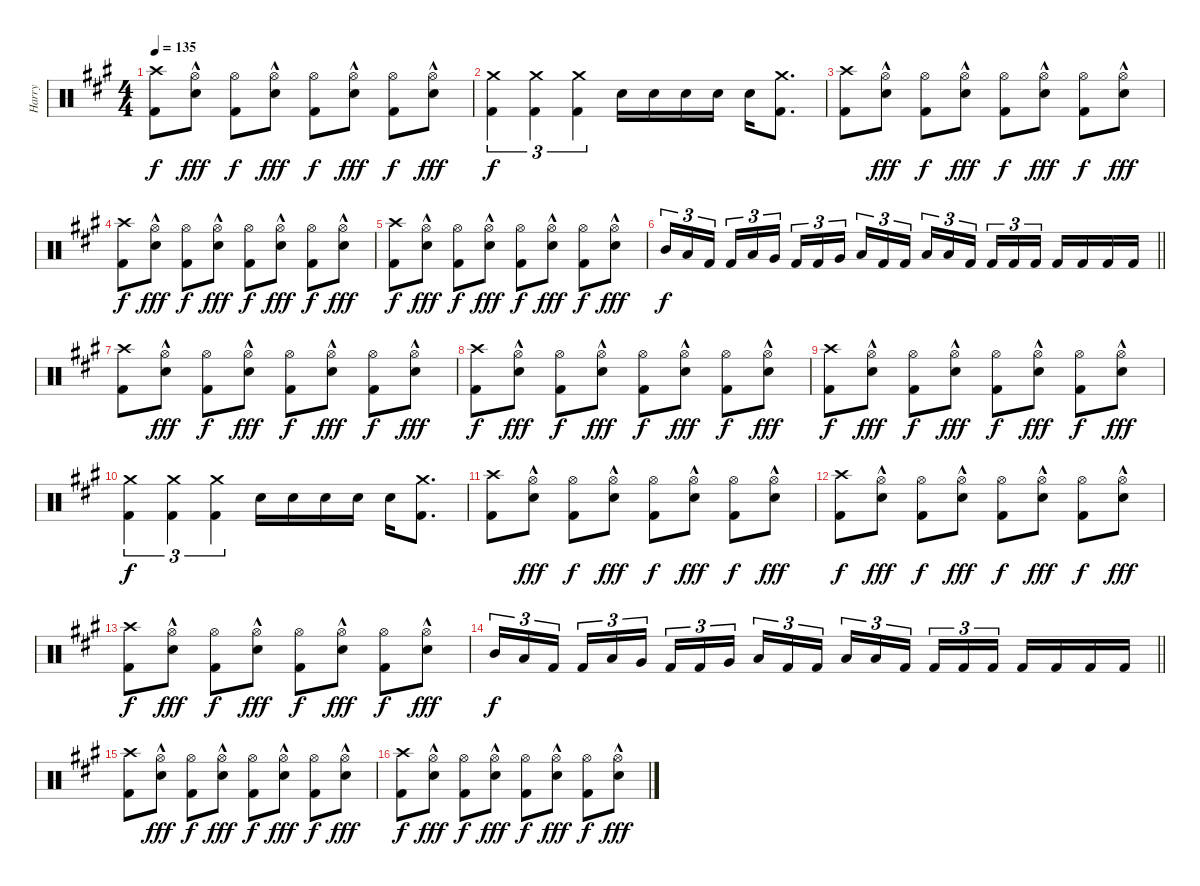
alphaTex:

\track ("Harry" "Harry") {instrument percussion}
\staff {score}
\articulation defaults
\ts (4 4)
\tempo 135
\clef neutral
\ks a
("Crash high (hit)" "Kick (hit) 2").8{dy f} ("Hi-Hat (open)"{hac} "Snare (hit) 2"{hac}).8{dy fff} ("Hi-Hat (open)" "Kick (hit) 2").8{dy f} ("Hi-Hat (open)"{hac} "Snare (hit) 2"{hac}).8{dy fff} ("Hi-Hat (open)" "Kick (hit) 2").8{dy f} ("Hi-Hat (open)"{hac} "Snare (hit) 2"{hac}).8{dy fff} ("Hi-Hat (open)" "Kick (hit) 2").8{dy f} ("Hi-Hat (open)"{hac} "Snare (hit) 2"{hac}).8{dy fff} |
("Crash medium (hit)" "Kick (hit) 2").4{tu (3 2) dy f} ("Crash medium (hit)" "Kick (hit) 2").4{tu (3 2)} ("Crash medium (hit)" "Kick (hit) 2").4{tu (3 2)} "Snare (hit) 2".16 "Snare (hit) 2".16 "Snare (hit) 2".16 "Snare (hit) 2".16 "Snare (hit) 2".16 ("Crash medium (hit)" "Kick (hit) 2").8{d} |
("Crash high (hit)" "Kick (hit) 2").8 ("Hi-Hat (open)"{hac} "Snare (hit) 2"{hac}).8{dy fff} ("Hi-Hat (open)" "Kick (hit) 2").8{dy f} ("Hi-Hat (open)"{hac} "Snare (hit) 2"{hac}).8{dy fff} ("Hi-Hat (open)" "Kick (hit) 2").8{dy f} ("Hi-Hat (open)"{hac} "Snare (hit) 2"{hac}).8{dy fff} ("Hi-Hat (open)" "Kick (hit) 2").8{dy f} ("Hi-Hat (open)"{hac} "Snare (hit) 2"{hac}).8{dy fff} |
("Crash high (hit)" "Kick (hit) 2").8{dy f} ("Hi-Hat (open)"{hac} "Snare (hit) 2"{hac}).8{dy fff} ("Hi-Hat (open)" "Kick (hit) 2").8{dy f} ("Hi-Hat (open)"{hac} "Snare (hit) 2"{hac}).8{dy fff} ("Hi-Hat (open)" "Kick (hit) 2").8{dy f} ("Hi-Hat (open)"{hac} "Snare (hit) 2"{hac}).8{dy fff} ("Hi-Hat (open)" "Kick (hit) 2").8{dy f} ("Hi-Hat (open)"{hac} "Snare (hit) 2"{hac}).8{dy fff} |
("Crash high (hit)" "Kick (hit) 2").8{dy f} ("Hi-Hat (open)"{hac} "Snare (hit) 2"{hac}).8{dy fff} ("Hi-Hat (open)" "Kick (hit) 2").8{dy f} ("Hi-Hat (open)"{hac} "Snare (hit) 2"{hac}).8{dy fff} ("Hi-Hat (open)" "Kick (hit) 2").8{dy f} ("Hi-Hat (open)"{hac} "Snare (hit) 2"{hac}).8{dy fff} ("Hi-Hat (open)" "Kick (hit) 2").8{dy f} ("Hi-Hat (open)"{hac} "Snare (hit) 2"{hac}).8{dy fff} |
\barLineRight lightlight "Mid Tom (hit)".16{tu (3 2) dy f} "Low Tom (hit)".16{tu (3 2)} "Kick (hit) 2".16{tu (3 2) beam splitsecondary} "Kick (hit) 2".16{tu (3 2)} "Low Tom (hit)".16{tu (3 2)} "Very Low Tom (hit)".16{tu (3 2)} "Kick (hit) 2".16{tu (3 2)} "Kick (hit) 2".16{tu (3 2)} "Very Low Tom (hit)".16{tu (3 2) beam splitsecondary} "Low Floor Tom (hit)".16{tu (3 2)} "Kick (hit) 2".16{tu (3 2)} "Kick (hit) 2".16{tu (3 2)} "Low Floor Tom (hit)".16{tu (3 2)} "Low Floor Tom (hit)".16{tu (3 2)} "Kick (hit) 2".16{tu (3 2) beam splitsecondary} "Kick (hit) 2".16{tu (3 2)} "Kick (hit) 2".16{tu (3 2)} "Kick (hit) 2".16{tu (3 2)} "Kick (hit) 2".16 "Kick (hit) 2".16 "Kick (hit) 2".16 "Kick (hit) 2".16
|
("Crash high (hit)" "Kick (hit) 2").8 ("Hi-Hat (open)"{hac} "Snare (hit) 2"{hac}).8{dy fff} ("Hi-Hat (open)" "Kick (hit) 2").8{dy f} ("Hi-Hat (open)"{hac} "Snare (hit) 2"{hac}).8{dy fff} ("Hi-Hat (open)" "Kick (hit) 2").8{dy f} ("Hi-Hat (open)"{hac} "Snare (hit) 2"{hac}).8{dy fff} ("Hi-Hat (open)" "Kick (hit) 2").8{dy f} ("Hi-Hat (open)"{hac} "Snare (hit) 2"{hac}).8{dy fff} |
("Crash high (hit)" "Kick (hit) 2").8{dy f} ("Hi-Hat (open)"{hac} "Snare (hit) 2"{hac}).8{dy fff} ("Hi-Hat (open)" "Kick (hit) 2").8{dy f} ("Hi-Hat (open)"{hac} "Snare (hit) 2"{hac}).8{dy fff} ("Hi-Hat (open)" "Kick (hit) 2").8{dy f} ("Hi-Hat (open)"{hac} "Snare (hit) 2"{hac}).8{dy fff} ("Hi-Hat (open)" "Kick (hit) 2").8{dy f} ("Hi-Hat (open)"{hac} "Snare (hit) 2"{hac}).8{dy fff} |
("Crash high (hit)" "Kick (hit) 2").8{dy f} ("Hi-Hat (open)"{hac} "Snare (hit) 2"{hac}).8{dy fff} ("Hi-Hat (open)" "Kick (hit) 2").8{dy f} ("Hi-Hat (open)"{hac} "Snare (hit) 2"{hac}).8{dy fff} ("Hi-Hat (open)" "Kick (hit) 2").8{dy f} ("Hi-Hat (open)"{hac} "Snare (hit) 2"{hac}).8{dy fff} ("Hi-Hat (open)" "Kick (hit) 2").8{dy f} ("Hi-Hat (open)"{hac} "Snare (hit) 2"{hac}).8{dy fff} |
("Crash medium (hit)" "Kick (hit) 2").4{tu (3 2) dy f} ("Crash medium (hit)" "Kick (hit) 2").4{tu (3 2)} ("Crash medium (hit)" "Kick (hit) 2").4{tu (3 2)} "Snare (hit) 2".16 "Snare (hit) 2".16 "Snare (hit) 2".16 "Snare (hit) 2".16 "Snare (hit) 2".16 ("Crash medium (hit)" "Kick (hit) 2").8{d} |
("Crash high (hit)" "Kick (hit) 2").8 ("Hi-Hat (open)"{hac} "Snare (hit) 2"{hac}).8{dy fff} ("Hi-Hat (open)" "Kick (hit) 2").8{dy f} ("Hi-Hat (open)"{hac} "Snare (hit) 2"{hac}).8{dy fff} ("Hi-Hat (open)" "Kick (hit) 2").8{dy f} ("Hi-Hat (open)"{hac} "Snare (hit) 2"{hac}).8{dy fff} ("Hi-Hat (open)" "Kick (hit) 2").8{dy f} ("Hi-Hat (open)"{hac} "Snare (hit) 2"{hac}).8{dy fff} |
("Crash high (hit)" "Kick (hit) 2").8{dy f} ("Hi-Hat (open)"{hac} "Snare (hit) 2"{hac}).8{dy fff} ("Hi-Hat (open)" "Kick (hit) 2").8{dy f} ("Hi-Hat (open)"{hac} "Snare (hit) 2"{hac}).8{dy fff} ("Hi-Hat (open)" "Kick (hit) 2").8{dy f} ("Hi-Hat (open)"{hac} "Snare (hit) 2"{hac}).8{dy fff} ("Hi-Hat (open)" "Kick (hit) 2").8{dy f} ("Hi-Hat (open)"{hac} "Snare (hit) 2"{hac}).8{dy fff} |
("Crash high (hit)" "Kick (hit) 2").8{dy f} ("Hi-Hat (open)"{hac} "Snare (hit) 2"{hac}).8{dy fff} ("Hi-Hat (open)" "Kick (hit) 2").8{dy f} ("Hi-Hat (open)"{hac} "Snare (hit) 2"{hac}).8{dy fff} ("Hi-Hat (open)" "Kick (hit) 2").8{dy f} ("Hi-Hat (open)"{hac} "Snare (hit) 2"{hac}).8{dy fff} ("Hi-Hat (open)" "Kick (hit) 2").8{dy f} ("Hi-Hat (open)"{hac} "Snare (hit) 2"{hac}).8{dy fff} |
\barLineRight lightlight "Mid Tom (hit)".16{tu (3 2) dy f} "Low Tom (hit)".16{tu (3 2)} "Kick (hit) 2".16{tu (3 2) beam splitsecondary} "Kick (hit) 2".16{tu (3 2)} "Low Tom (hit)".16{tu (3 2)} "Very Low Tom (hit)".16{tu (3 2)} "Kick (hit) 2".16{tu (3 2)} "Kick (hit) 2".16{tu (3 2)} "Very Low Tom (hit)".16{tu (3 2) beam splitsecondary} "Low Floor Tom (hit)".16{tu (3 2)} "Kick (hit) 2".16{tu (3 2)} "Kick (hit) 2".16{tu (3 2)} "Low Floor Tom (hit)".16{tu (3 2)} "Low Floor Tom (hit)".16{tu (3 2)} "Kick (hit) 2".16{tu (3 2) beam splitsecondary} "Kick (hit) 2".16{tu (3 2)} "Kick (hit) 2".16{tu (3 2)} "Kick (hit) 2".16{tu (3 2)} "Kick (hit) 2".16 "Kick (hit) 2".16 "Kick (hit) 2".16 "Kick (hit) 2".16
|
("Crash high (hit)" "Kick (hit) 2").8 ("Hi-Hat (open)"{hac} "Snare (hit) 2"{hac}).8{dy fff} ("Hi-Hat (open)" "Kick (hit) 2").8{dy f} ("Hi-Hat (open)"{hac} "Snare (hit) 2"{hac}).8{dy fff} ("Hi-Hat (open)" "Kick (hit) 2").8{dy f} ("Hi-Hat (open)"{hac} "Snare (hit) 2"{hac}).8{dy fff} ("Hi-Hat (open)" "Kick (hit) 2").8{dy f} ("Hi-Hat (open)"{hac} "Snare (hit) 2"{hac}).8{dy fff} |
("Crash high (hit)" "Kick (hit) 2").8{dy f} ("Hi-Hat (open)"{hac} "Snare (hit) 2"{hac}).8{dy fff} ("Hi-Hat (open)" "Kick (hit) 2").8{dy f} ("Hi-Hat (open)"{hac} "Snare (hit) 2"{hac}).8{dy fff} ("Hi-Hat (open)" "Kick (hit) 2").8{dy f} ("Hi-Hat (open)"{hac} "Snare (hit) 2"{hac}).8{dy fff} ("Hi-Hat (open)" "Kick (hit) 2").8{dy f} ("Hi-Hat (open)"{hac} "Snare (hit) 2"{hac}).8{dy fff}
